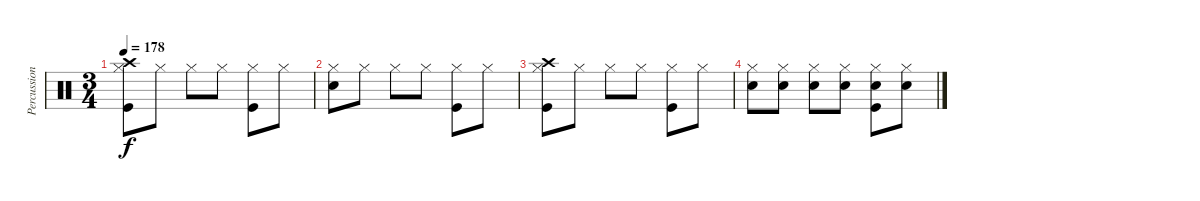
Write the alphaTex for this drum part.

\track ("Percussion" "Percussion") {instrument percussion}
\staff {score}
\articulation defaults
\ts (3 4)
\tempo 178
\clef neutral
\ks c
("Hi-Hat (closed)" "Crash high (hit)" "Kick (hit)").8{dy f} "Hi-Hat (closed)".8 "Hi-Hat (closed)".8 "Hi-Hat (closed)".8 ("Hi-Hat (closed)" "Kick (hit)").8 "Hi-Hat (closed)".8 |
("Hi-Hat (closed)" "Snare (hit) 2").8 "Hi-Hat (closed)".8 "Hi-Hat (closed)".8 "Hi-Hat (closed)".8 ("Hi-Hat (closed)" "Kick (hit)").8 "Hi-Hat (closed)".8 |
("Hi-Hat (closed)" "Crash high (hit)" "Kick (hit)").8 "Hi-Hat (closed)".8 "Hi-Hat (closed)".8 "Hi-Hat (closed)".8 ("Hi-Hat (closed)" "Kick (hit)").8 "Hi-Hat (closed)".8 |
("Hi-Hat (closed)" "Snare (hit) 2").8 ("Hi-Hat (closed)" "Snare (hit) 2").8 ("Hi-Hat (closed)" "Snare (hit) 2").8 ("Hi-Hat (closed)" "Snare (hit) 2").8 ("Hi-Hat (closed)" "Snare (hit) 2" "Kick (hit)").8 ("Hi-Hat (closed)" "Snare (hit) 2").8
